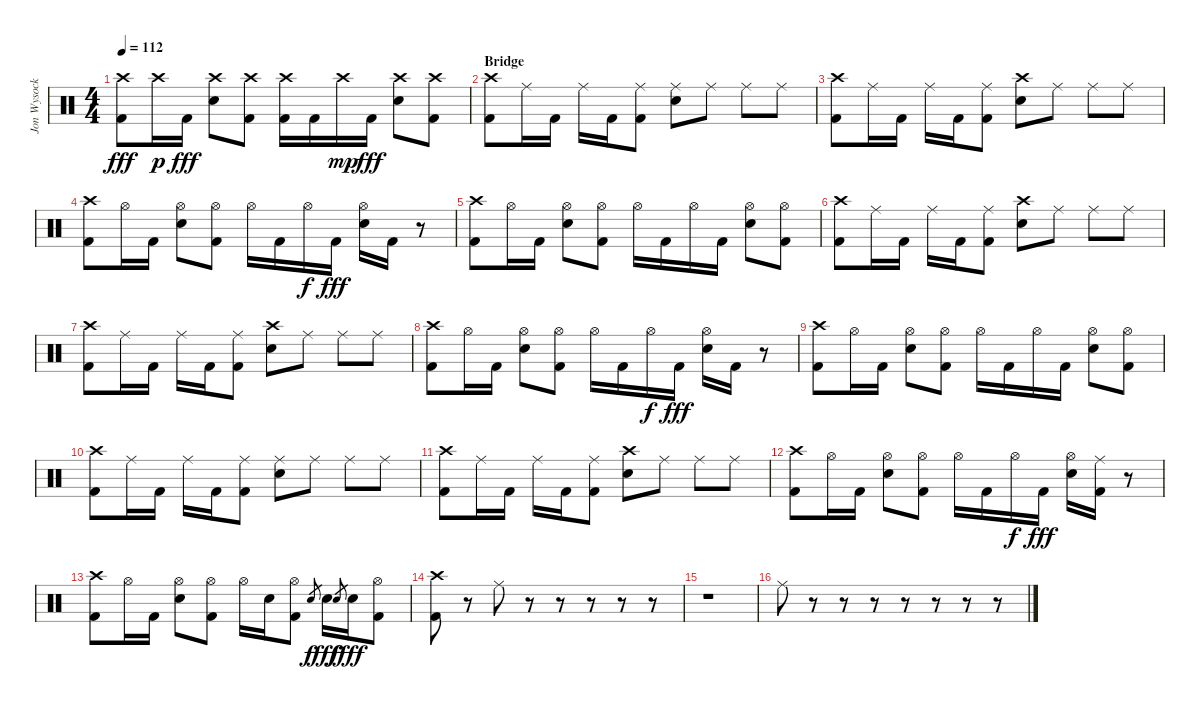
\track ("Jon Wysocki" "Jon Wysock") {instrument percussion}
\staff {score}
\articulation defaults
\ts (4 4)
\tempo 112
\clef neutral
\ks c
("Crash high (hit)" "Kick (hit) 2").8{dy fff} "Crash high (hit)".16{dy p} "Kick (hit) 2".16{dy fff} ("Crash high (hit)" "Electric Snare (hit)").8 ("Crash high (hit)" "Kick (hit) 2").8 ("Crash high (hit)" "Kick (hit) 2").16 "Kick (hit) 2".16 "Crash high (hit)".16{dy mp} "Kick (hit) 2".16{dy fff} ("Crash high (hit)" "Electric Snare (hit)").8 ("Crash high (hit)" "Kick (hit) 2").8 |
\section ("" "Bridge")
("Crash high (hit)" "Kick (hit) 2").8 "Ride (middle)".16 "Kick (hit) 2".16 "Ride (middle)".16 "Kick (hit) 2".16 ("Ride (middle)" "Kick (hit) 2").8 ("Ride (middle)" "Electric Snare (hit)").8 "Ride (middle)".8 "Ride (middle)".8 "Ride (middle)".8 |
("Crash high (hit)" "Kick (hit) 2").8 "Ride (middle)".16 "Kick (hit) 2".16 "Ride (middle)".16 "Kick (hit) 2".16 ("Ride (middle)" "Kick (hit) 2").8 ("Crash high (hit)" "Electric Snare (hit)").8 "Ride (middle)".8 "Ride (middle)".8 "Ride (middle)".8 |
("Crash high (hit)" "Kick (hit) 2").8 "Hi-Hat (open)".16 "Kick (hit) 2".16 ("Hi-Hat (open)" "Electric Snare (hit)").8 ("Hi-Hat (open)" "Kick (hit) 2").8 "Hi-Hat (open)".16 "Kick (hit) 2".16 "Hi-Hat (open)".16{dy f} "Kick (hit) 2".16{dy fff} ("Hi-Hat (open)" "Electric Snare (hit)").16 "Kick (hit) 2".16 r.8 |
("Crash high (hit)" "Kick (hit) 2").8 "Hi-Hat (open)".16 "Kick (hit) 2".16 ("Hi-Hat (open)" "Electric Snare (hit)").8 ("Hi-Hat (open)" "Kick (hit) 2").8 "Hi-Hat (open)".16 "Kick (hit) 2".16 "Hi-Hat (open)".16 "Kick (hit) 2".16 ("Hi-Hat (open)" "Electric Snare (hit)").8 ("Hi-Hat (open)" "Kick (hit) 2").8 |
("Crash high (hit)" "Kick (hit) 2").8 "Ride (middle)".16 "Kick (hit) 2".16 "Ride (middle)".16 "Kick (hit) 2".16 ("Ride (middle)" "Kick (hit) 2").8 ("Crash high (hit)" "Electric Snare (hit)").8 "Ride (middle)".8 "Ride (middle)".8 "Ride (middle)".8 |
("Crash high (hit)" "Kick (hit) 2").8 "Ride (middle)".16 "Kick (hit) 2".16 "Ride (middle)".16 "Kick (hit) 2".16 ("Ride (middle)" "Kick (hit) 2").8 ("Crash high (hit)" "Electric Snare (hit)").8 "Ride (middle)".8 "Ride (middle)".8 "Ride (middle)".8 |
("Crash high (hit)" "Kick (hit) 2").8 "Hi-Hat (open)".16 "Kick (hit) 2".16 ("Hi-Hat (open)" "Electric Snare (hit)").8 ("Hi-Hat (open)" "Kick (hit) 2").8 "Hi-Hat (open)".16 "Kick (hit) 2".16 "Hi-Hat (open)".16{dy f} "Kick (hit) 2".16{dy fff} ("Hi-Hat (open)" "Electric Snare (hit)").16 "Kick (hit) 2".16 r.8 |
("Crash high (hit)" "Kick (hit) 2").8 "Hi-Hat (open)".16 "Kick (hit) 2".16 ("Hi-Hat (open)" "Electric Snare (hit)").8 ("Hi-Hat (open)" "Kick (hit) 2").8 "Hi-Hat (open)".16 "Kick (hit) 2".16 "Hi-Hat (open)".16 "Kick (hit) 2".16 ("Hi-Hat (open)" "Electric Snare (hit)").8 ("Hi-Hat (open)" "Kick (hit) 2").8 |
("Crash high (hit)" "Kick (hit) 2").8 "Ride (middle)".16 "Kick (hit) 2".16 "Ride (middle)".16 "Kick (hit) 2".16 ("Ride (middle)" "Kick (hit) 2").8 ("Ride (middle)" "Electric Snare (hit)").8 "Ride (middle)".8 "Ride (middle)".8 "Ride (middle)".8 |
("Crash high (hit)" "Kick (hit) 2").8 "Ride (middle)".16 "Kick (hit) 2".16 "Ride (middle)".16 "Kick (hit) 2".16 ("Ride (middle)" "Kick (hit) 2").8 ("Crash high (hit)" "Electric Snare (hit)").8 "Ride (middle)".8 "Ride (middle)".8 "Ride (middle)".8 |
("Crash high (hit)" "Kick (hit) 2").8 "Hi-Hat (open)".16 "Kick (hit) 2".16 ("Hi-Hat (open)" "Electric Snare (hit)").8 ("Hi-Hat (open)" "Kick (hit) 2").8 "Hi-Hat (open)".16 "Kick (hit) 2".16 "Hi-Hat (open)".16{dy f} "Kick (hit) 2".16{dy fff} ("Hi-Hat (open)" "Electric Snare (hit)").16 ("Ride (middle)" "Kick (hit) 2").16 r.8 |
("Crash high (hit)" "Kick (hit) 2").8 "Hi-Hat (open)".16 "Kick (hit) 2".16 ("Hi-Hat (open)" "Electric Snare (hit)").8 ("Hi-Hat (open)" "Kick (hit) 2").8 "Hi-Hat (open)".16 "Electric Snare (hit)".16 ("Hi-Hat (open)" "Kick (hit) 2").8 "Electric Snare (hit)".8{gr dy f} "Electric Snare (hit)".16{dy fff} "Electric Snare (hit)".8{gr dy f} "Electric Snare (hit)".16{dy fff} ("Hi-Hat (open)" "Kick (hit) 2").8 |
("Crash high (hit)" "Kick (hit) 2").8 r.8 "Ride (middle)".8 r.8 r.8 r.8 r.8 r.8 |
r.1 |
"Ride (middle)".8 r.8 r.8 r.8 r.8 r.8 r.8 r.8
